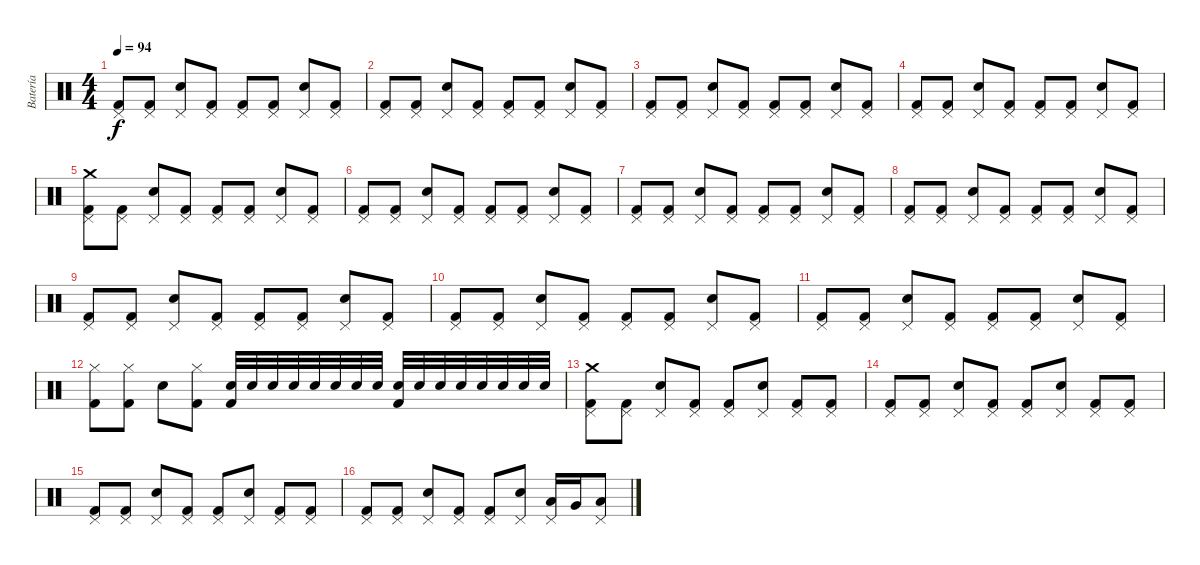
\track ("Batería" "Batería") {instrument percussion}
\staff {score}
\articulation defaults
\ts (4 4)
\tempo 94
\clef neutral
\ks c
("Pedal Hi-Hat (hit)" "Kick (hit) 2").8{dy f} ("Pedal Hi-Hat (hit)" "Kick (hit) 2").8 ("Pedal Hi-Hat (hit)" "Snare (hit) 2").8 ("Pedal Hi-Hat (hit)" "Kick (hit) 2").8 ("Pedal Hi-Hat (hit)" "Kick (hit) 2").8 ("Pedal Hi-Hat (hit)" "Kick (hit) 2").8 ("Pedal Hi-Hat (hit)" "Snare (hit) 2").8 ("Kick (hit) 2" "Pedal Hi-Hat (hit)").8 |
("Pedal Hi-Hat (hit)" "Kick (hit) 2").8 ("Pedal Hi-Hat (hit)" "Kick (hit) 2").8 ("Pedal Hi-Hat (hit)" "Snare (hit) 2").8 ("Pedal Hi-Hat (hit)" "Kick (hit) 2").8 ("Pedal Hi-Hat (hit)" "Kick (hit) 2").8 ("Pedal Hi-Hat (hit)" "Kick (hit) 2").8 ("Pedal Hi-Hat (hit)" "Snare (hit) 2").8 ("Kick (hit) 2" "Pedal Hi-Hat (hit)").8 |
("Pedal Hi-Hat (hit)" "Kick (hit) 2").8 ("Pedal Hi-Hat (hit)" "Kick (hit) 2").8 ("Pedal Hi-Hat (hit)" "Snare (hit) 2").8 ("Pedal Hi-Hat (hit)" "Kick (hit) 2").8 ("Pedal Hi-Hat (hit)" "Kick (hit) 2").8 ("Pedal Hi-Hat (hit)" "Kick (hit) 2").8 ("Pedal Hi-Hat (hit)" "Snare (hit) 2").8 ("Kick (hit) 2" "Pedal Hi-Hat (hit)").8 |
("Pedal Hi-Hat (hit)" "Kick (hit) 2").8 ("Pedal Hi-Hat (hit)" "Kick (hit) 2").8 ("Pedal Hi-Hat (hit)" "Snare (hit) 2").8 ("Pedal Hi-Hat (hit)" "Kick (hit) 2").8 ("Pedal Hi-Hat (hit)" "Kick (hit) 2").8 ("Pedal Hi-Hat (hit)" "Kick (hit) 2").8 ("Pedal Hi-Hat (hit)" "Snare (hit) 2").8 ("Kick (hit) 2" "Pedal Hi-Hat (hit)").8 |
("Crash medium (hit)" "Pedal Hi-Hat (hit)" "Kick (hit) 2").8 ("Pedal Hi-Hat (hit)" "Kick (hit) 2").8 ("Pedal Hi-Hat (hit)" "Snare (hit) 2").8 ("Pedal Hi-Hat (hit)" "Kick (hit) 2").8 ("Pedal Hi-Hat (hit)" "Kick (hit) 2").8 ("Pedal Hi-Hat (hit)" "Kick (hit) 2").8 ("Pedal Hi-Hat (hit)" "Snare (hit) 2").8 ("Kick (hit) 2" "Pedal Hi-Hat (hit)").8 |
("Pedal Hi-Hat (hit)" "Kick (hit) 2").8 ("Pedal Hi-Hat (hit)" "Kick (hit) 2").8 ("Pedal Hi-Hat (hit)" "Snare (hit) 2").8 ("Pedal Hi-Hat (hit)" "Kick (hit) 2").8 ("Pedal Hi-Hat (hit)" "Kick (hit) 2").8 ("Pedal Hi-Hat (hit)" "Kick (hit) 2").8 ("Pedal Hi-Hat (hit)" "Snare (hit) 2").8 ("Kick (hit) 2" "Pedal Hi-Hat (hit)").8 |
("Pedal Hi-Hat (hit)" "Kick (hit) 2").8 ("Pedal Hi-Hat (hit)" "Kick (hit) 2").8 ("Pedal Hi-Hat (hit)" "Snare (hit) 2").8 ("Pedal Hi-Hat (hit)" "Kick (hit) 2").8 ("Pedal Hi-Hat (hit)" "Kick (hit) 2").8 ("Pedal Hi-Hat (hit)" "Kick (hit) 2").8 ("Pedal Hi-Hat (hit)" "Snare (hit) 2").8 ("Kick (hit) 2" "Pedal Hi-Hat (hit)").8 |
("Pedal Hi-Hat (hit)" "Kick (hit) 2").8 ("Pedal Hi-Hat (hit)" "Kick (hit) 2").8 ("Pedal Hi-Hat (hit)" "Snare (hit) 2").8 ("Pedal Hi-Hat (hit)" "Kick (hit) 2").8 ("Pedal Hi-Hat (hit)" "Kick (hit) 2").8 ("Pedal Hi-Hat (hit)" "Kick (hit) 2").8 ("Pedal Hi-Hat (hit)" "Snare (hit) 2").8 ("Kick (hit) 2" "Pedal Hi-Hat (hit)").8 |
("Pedal Hi-Hat (hit)" "Kick (hit) 2").8 ("Pedal Hi-Hat (hit)" "Kick (hit) 2").8 ("Pedal Hi-Hat (hit)" "Snare (hit) 2").8 ("Pedal Hi-Hat (hit)" "Kick (hit) 2").8 ("Pedal Hi-Hat (hit)" "Kick (hit) 2").8 ("Pedal Hi-Hat (hit)" "Kick (hit) 2").8 ("Pedal Hi-Hat (hit)" "Snare (hit) 2").8 ("Kick (hit) 2" "Pedal Hi-Hat (hit)").8 |
("Pedal Hi-Hat (hit)" "Kick (hit) 2").8 ("Pedal Hi-Hat (hit)" "Kick (hit) 2").8 ("Pedal Hi-Hat (hit)" "Snare (hit) 2").8 ("Pedal Hi-Hat (hit)" "Kick (hit) 2").8 ("Pedal Hi-Hat (hit)" "Kick (hit) 2").8 ("Pedal Hi-Hat (hit)" "Kick (hit) 2").8 ("Pedal Hi-Hat (hit)" "Snare (hit) 2").8 ("Kick (hit) 2" "Pedal Hi-Hat (hit)").8 |
("Pedal Hi-Hat (hit)" "Kick (hit) 2").8 ("Pedal Hi-Hat (hit)" "Kick (hit) 2").8 ("Pedal Hi-Hat (hit)" "Snare (hit) 2").8 ("Pedal Hi-Hat (hit)" "Kick (hit) 2").8 ("Pedal Hi-Hat (hit)" "Kick (hit) 2").8 ("Pedal Hi-Hat (hit)" "Kick (hit) 2").8 ("Pedal Hi-Hat (hit)" "Snare (hit) 2").8 ("Kick (hit) 2" "Pedal Hi-Hat (hit)").8 |
("Hi-Hat (closed)" "Kick (hit) 2").8 ("Hi-Hat (closed)" "Kick (hit) 2").8 "Snare (hit) 2".8 ("Hi-Hat (closed)" "Kick (hit) 2").8 ("Snare (hit) 2" "Kick (hit) 2").32 "Snare (hit) 2".32 "Snare (hit) 2".32 "Snare (hit) 2".32 "Snare (hit) 2".32 "Snare (hit) 2".32 "Snare (hit) 2".32 "Snare (hit) 2".32 ("Snare (hit) 2" "Kick (hit) 2").32 "Snare (hit) 2".32 "Snare (hit) 2".32 "Snare (hit) 2".32 "Snare (hit) 2".32 "Snare (hit) 2".32 "Snare (hit) 2".32 "Snare (hit) 2".32 |
("Crash medium (hit)" "Pedal Hi-Hat (hit)" "Kick (hit) 2").8 ("Pedal Hi-Hat (hit)" "Kick (hit) 2").8 ("Pedal Hi-Hat (hit)" "Snare (hit) 2").8 ("Pedal Hi-Hat (hit)" "Kick (hit) 2").8 ("Pedal Hi-Hat (hit)" "Kick (hit) 2").8 ("Pedal Hi-Hat (hit)" "Snare (hit) 2").8 ("Pedal Hi-Hat (hit)" "Kick (hit) 2").8 ("Pedal Hi-Hat (hit)" "Kick (hit) 2").8 |
("Pedal Hi-Hat (hit)" "Kick (hit) 2").8 ("Pedal Hi-Hat (hit)" "Kick (hit) 2").8 ("Pedal Hi-Hat (hit)" "Snare (hit) 2").8 ("Kick (hit) 2" "Pedal Hi-Hat (hit)").8 ("Kick (hit) 2" "Pedal Hi-Hat (hit)").8 ("Snare (hit) 2" "Pedal Hi-Hat (hit)").8 ("Kick (hit) 2" "Pedal Hi-Hat (hit)").8 ("Kick (hit) 2" "Pedal Hi-Hat (hit)").8 |
("Kick (hit) 2" "Pedal Hi-Hat (hit)").8 ("Kick (hit) 2" "Pedal Hi-Hat (hit)").8 ("Snare (hit) 2" "Pedal Hi-Hat (hit)").8 ("Kick (hit) 2" "Pedal Hi-Hat (hit)").8 ("Kick (hit) 2" "Pedal Hi-Hat (hit)").8 ("Snare (hit) 2" "Pedal Hi-Hat (hit)").8 ("Kick (hit) 2" "Pedal Hi-Hat (hit)").8 ("Kick (hit) 2" "Pedal Hi-Hat (hit)").8 |
("Kick (hit) 2" "Pedal Hi-Hat (hit)").8 ("Kick (hit) 2" "Pedal Hi-Hat (hit)").8 ("Snare (hit) 2" "Pedal Hi-Hat (hit)").8 ("Kick (hit) 2" "Pedal Hi-Hat (hit)").8 ("Kick (hit) 2" "Pedal Hi-Hat (hit)").8 ("Snare (hit) 2" "Pedal Hi-Hat (hit)").8 ("Low Tom (hit)" "Pedal Hi-Hat (hit)").16 "Very Low Tom (hit)".16 ("Low Floor Tom (hit)" "Pedal Hi-Hat (hit)").8
